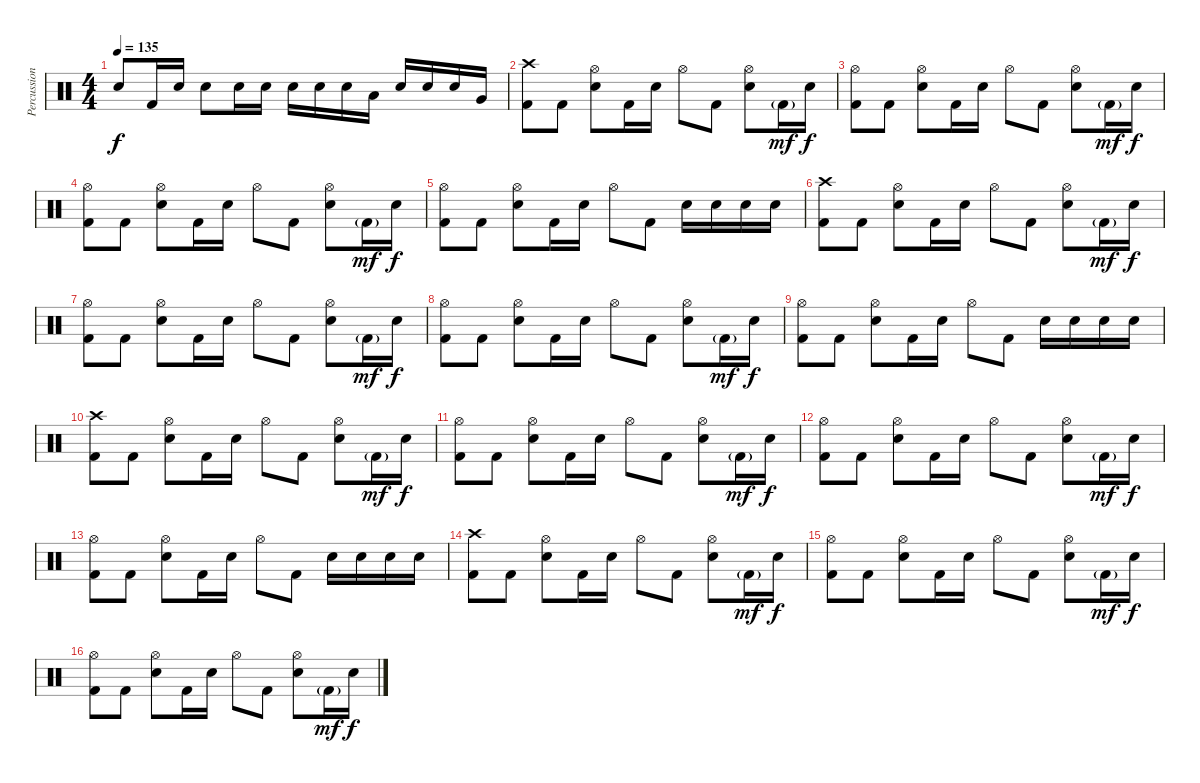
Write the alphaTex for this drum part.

\track ("Percussions" "Percussion") {instrument percussion}
\staff {score}
\articulation defaults
\ts (4 4)
\tempo 135
\clef neutral
\ks c "Snare (hit) 2".8{dy f} "Kick (hit) 2".16 "Snare (hit) 2".16 "Snare (hit) 2".8 "Snare (hit) 2".16 "Snare (hit) 2".16 "Snare (hit) 2".16 "Snare (hit) 2".16 "Snare (hit) 2".16 "Low Tom (hit)".16 "Snare (hit) 2".16 "Snare (hit) 2".16 "Snare (hit) 2".16 "Very Low Tom (hit)".16
|
("Crash high (hit)" "Kick (hit) 2").8 "Kick (hit) 2".8 ("Hi-Hat (open)" "Snare (hit) 2").8 "Kick (hit) 2".16 "Snare (hit) 2".16 "Hi-Hat (open)".8 "Kick (hit) 2".8 ("Hi-Hat (open)" "Snare (hit) 2").8 "Kick (hit) 2"{g}.16{dy mf} "Snare (hit) 2".16{dy f} |
("Hi-Hat (open)" "Kick (hit) 2").8 "Kick (hit) 2".8 ("Hi-Hat (open)" "Snare (hit) 2").8 "Kick (hit) 2".16 "Snare (hit) 2".16 "Hi-Hat (open)".8 "Kick (hit) 2".8 ("Hi-Hat (open)" "Snare (hit) 2").8 "Kick (hit) 2"{g}.16{dy mf} "Snare (hit) 2".16{dy f} |
("Hi-Hat (open)" "Kick (hit) 2").8 "Kick (hit) 2".8 ("Hi-Hat (open)" "Snare (hit) 2").8 "Kick (hit) 2".16 "Snare (hit) 2".16 "Hi-Hat (open)".8 "Kick (hit) 2".8 ("Hi-Hat (open)" "Snare (hit) 2").8 "Kick (hit) 2"{g}.16{dy mf} "Snare (hit) 2".16{dy f} |
("Hi-Hat (open)" "Kick (hit) 2").8 "Kick (hit) 2".8 ("Hi-Hat (open)" "Snare (hit) 2").8 "Kick (hit) 2".16 "Snare (hit) 2".16 "Hi-Hat (open)".8 "Kick (hit) 2".8 "Snare (hit) 2".16 "Snare (hit) 2".16 "Snare (hit) 2".16 "Snare (hit) 2".16 |
("Crash high (hit)" "Kick (hit) 2").8 "Kick (hit) 2".8 ("Hi-Hat (open)" "Snare (hit) 2").8 "Kick (hit) 2".16 "Snare (hit) 2".16 "Hi-Hat (open)".8 "Kick (hit) 2".8 ("Hi-Hat (open)" "Snare (hit) 2").8 "Kick (hit) 2"{g}.16{dy mf} "Snare (hit) 2".16{dy f} |
("Hi-Hat (open)" "Kick (hit) 2").8 "Kick (hit) 2".8 ("Hi-Hat (open)" "Snare (hit) 2").8 "Kick (hit) 2".16 "Snare (hit) 2".16 "Hi-Hat (open)".8 "Kick (hit) 2".8 ("Hi-Hat (open)" "Snare (hit) 2").8 "Kick (hit) 2"{g}.16{dy mf} "Snare (hit) 2".16{dy f} |
("Hi-Hat (open)" "Kick (hit) 2").8 "Kick (hit) 2".8 ("Hi-Hat (open)" "Snare (hit) 2").8 "Kick (hit) 2".16 "Snare (hit) 2".16 "Hi-Hat (open)".8 "Kick (hit) 2".8 ("Hi-Hat (open)" "Snare (hit) 2").8 "Kick (hit) 2"{g}.16{dy mf} "Snare (hit) 2".16{dy f} |
("Hi-Hat (open)" "Kick (hit) 2").8 "Kick (hit) 2".8 ("Hi-Hat (open)" "Snare (hit) 2").8 "Kick (hit) 2".16 "Snare (hit) 2".16 "Hi-Hat (open)".8 "Kick (hit) 2".8 "Snare (hit) 2".16 "Snare (hit) 2".16 "Snare (hit) 2".16 "Snare (hit) 2".16 |
("Crash high (hit)" "Kick (hit) 2").8 "Kick (hit) 2".8 ("Hi-Hat (open)" "Snare (hit) 2").8 "Kick (hit) 2".16 "Snare (hit) 2".16 "Hi-Hat (open)".8 "Kick (hit) 2".8 ("Hi-Hat (open)" "Snare (hit) 2").8 "Kick (hit) 2"{g}.16{dy mf} "Snare (hit) 2".16{dy f} |
("Hi-Hat (open)" "Kick (hit) 2").8 "Kick (hit) 2".8 ("Hi-Hat (open)" "Snare (hit) 2").8 "Kick (hit) 2".16 "Snare (hit) 2".16 "Hi-Hat (open)".8 "Kick (hit) 2".8 ("Hi-Hat (open)" "Snare (hit) 2").8 "Kick (hit) 2"{g}.16{dy mf} "Snare (hit) 2".16{dy f} |
("Hi-Hat (open)" "Kick (hit) 2").8 "Kick (hit) 2".8 ("Hi-Hat (open)" "Snare (hit) 2").8 "Kick (hit) 2".16 "Snare (hit) 2".16 "Hi-Hat (open)".8 "Kick (hit) 2".8 ("Hi-Hat (open)" "Snare (hit) 2").8 "Kick (hit) 2"{g}.16{dy mf} "Snare (hit) 2".16{dy f} |
("Hi-Hat (open)" "Kick (hit) 2").8 "Kick (hit) 2".8 ("Hi-Hat (open)" "Snare (hit) 2").8 "Kick (hit) 2".16 "Snare (hit) 2".16 "Hi-Hat (open)".8 "Kick (hit) 2".8 "Snare (hit) 2".16 "Snare (hit) 2".16 "Snare (hit) 2".16 "Snare (hit) 2".16 |
("Crash high (hit)" "Kick (hit) 2").8 "Kick (hit) 2".8 ("Hi-Hat (open)" "Snare (hit) 2").8 "Kick (hit) 2".16 "Snare (hit) 2".16 "Hi-Hat (open)".8 "Kick (hit) 2".8 ("Hi-Hat (open)" "Snare (hit) 2").8 "Kick (hit) 2"{g}.16{dy mf} "Snare (hit) 2".16{dy f} |
("Hi-Hat (open)" "Kick (hit) 2").8 "Kick (hit) 2".8 ("Hi-Hat (open)" "Snare (hit) 2").8 "Kick (hit) 2".16 "Snare (hit) 2".16 "Hi-Hat (open)".8 "Kick (hit) 2".8 ("Hi-Hat (open)" "Snare (hit) 2").8 "Kick (hit) 2"{g}.16{dy mf} "Snare (hit) 2".16{dy f} |
("Hi-Hat (open)" "Kick (hit) 2").8 "Kick (hit) 2".8 ("Hi-Hat (open)" "Snare (hit) 2").8 "Kick (hit) 2".16 "Snare (hit) 2".16 "Hi-Hat (open)".8 "Kick (hit) 2".8 ("Hi-Hat (open)" "Snare (hit) 2").8 "Kick (hit) 2"{g}.16{dy mf} "Snare (hit) 2".16{dy f}
